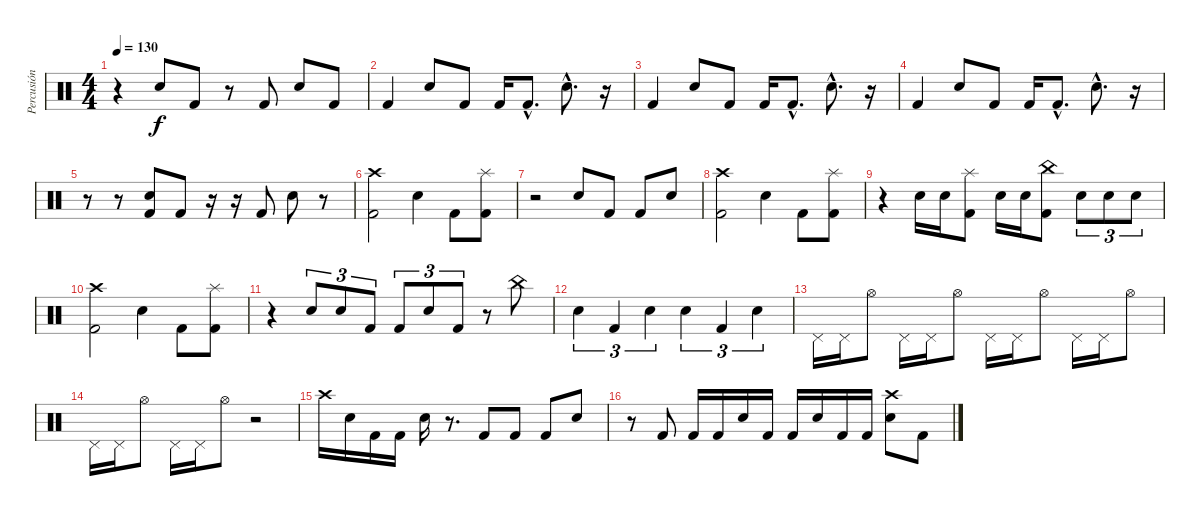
\track ("Percusión" "Percusión") {instrument percussion}
\staff {score}
\articulation defaults
\ts (4 4)
\tempo 130
\clef neutral
\ks c
r.4{dy f} "Electric Snare (hit)".8 "Kick (hit) 2".8 r.8 "Kick (hit) 2".8 "Electric Snare (hit)".8 "Kick (hit) 2".8 |
"Kick (hit) 2".4 "Electric Snare (hit)".8 "Kick (hit) 2".8 "Kick (hit) 2".16 "Kick (hit) 2"{hac}.8{d} "Electric Snare (hit)"{hac}.8{d} r.16 |
"Kick (hit) 2".4 "Electric Snare (hit)".8 "Kick (hit) 2".8 "Kick (hit) 2".16 "Kick (hit) 2"{hac}.8{d} "Electric Snare (hit)"{hac}.8{d} r.16 |
"Kick (hit) 2".4 "Electric Snare (hit)".8 "Kick (hit) 2".8 "Kick (hit) 2".16 "Kick (hit) 2"{hac}.8{d} "Electric Snare (hit)"{hac}.8{d} r.16 |
r.8 r.8 ("Electric Snare (hit)" "Kick (hit) 2").8 "Kick (hit) 2".8 r.16 r.16 "Kick (hit) 2".8 "Electric Snare (hit)".8 r.8 |
("Crash high (hit)" "Kick (hit) 2").2 "Electric Snare (hit)".4 "Kick (hit) 2".8 ("Splash (hit)" "Kick (hit) 2").8 |
r.2 "Electric Snare (hit)".8 "Kick (hit) 2".8 "Kick (hit) 2".8 "Electric Snare (hit)".8 |
("Crash high (hit)" "Kick (hit) 2").2 "Electric Snare (hit)".4 "Kick (hit) 2".8 ("Splash (hit)" "Kick (hit) 2").8 |
r.4 "Electric Snare (hit)".16 "Electric Snare (hit)".16 ("Splash (hit)" "Kick (hit) 2").8 "Electric Snare (hit)".16 "Electric Snare (hit)".16 ("China (hit)" "Kick (hit) 2").8 "Electric Snare (hit)".8{tu (3 2)} "Electric Snare (hit)".8{tu (3 2)} "Electric Snare (hit)".8{tu (3 2)} |
("Crash high (hit)" "Kick (hit) 2").2 "Electric Snare (hit)".4 "Kick (hit) 2".8 ("Splash (hit)" "Kick (hit) 2").8 |
r.4 "Electric Snare (hit)".8{tu (3 2)} "Electric Snare (hit)".8{tu (3 2)} "Kick (hit) 2".8{tu (3 2)} "Kick (hit) 2".8{tu (3 2)} "Electric Snare (hit)".8{tu (3 2)} "Kick (hit) 2".8{tu (3 2)} r.8 "China (hit)".8 |
"Electric Snare (hit)".4{tu (3 2)} "Kick (hit) 2".4{tu (3 2)} "Electric Snare (hit)".4{tu (3 2)} "Electric Snare (hit)".4{tu (3 2)} "Kick (hit) 2".4{tu (3 2)} "Electric Snare (hit)".4{tu (3 2)} |
"Pedal Hi-Hat (hit)".16 "Pedal Hi-Hat (hit)".16 "Hi-Hat (open)".8 "Pedal Hi-Hat (hit)".16 "Pedal Hi-Hat (hit)".16 "Hi-Hat (open)".8 "Pedal Hi-Hat (hit)".16 "Pedal Hi-Hat (hit)".16 "Hi-Hat (open)".8 "Pedal Hi-Hat (hit)".16 "Pedal Hi-Hat (hit)".16 "Hi-Hat (open)".8 |
"Pedal Hi-Hat (hit)".16 "Pedal Hi-Hat (hit)".16 "Hi-Hat (open)".8 "Pedal Hi-Hat (hit)".16 "Pedal Hi-Hat (hit)".16 "Hi-Hat (open)".8 r.2 |
"Crash high (hit)".16 "Electric Snare (hit)".16 "Kick (hit) 2".16 "Kick (hit) 2".16 "Electric Snare (hit)".16 r.8{d} "Kick (hit) 2".8 "Kick (hit) 2".8 "Kick (hit) 2".8 "Electric Snare (hit)".8 |
r.8 "Kick (hit) 2".8 "Kick (hit) 2".16 "Kick (hit) 2".16 "Electric Snare (hit)".16 "Kick (hit) 2".16 "Kick (hit) 2".16 "Electric Snare (hit)".16 "Kick (hit) 2".16 "Kick (hit) 2".16 ("Crash high (hit)" "Electric Snare (hit)").8 "Kick (hit) 2".8
